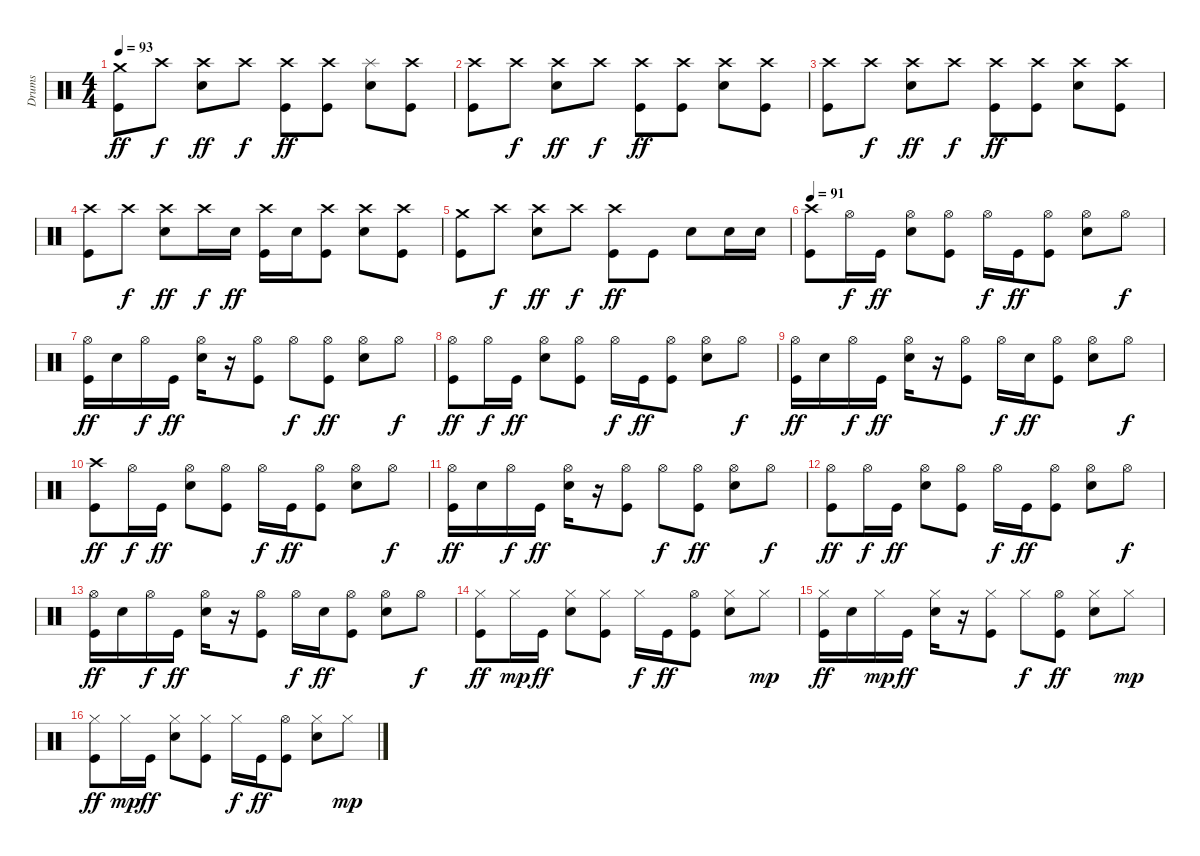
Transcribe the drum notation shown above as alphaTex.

\track ("Drums" "Drums") {instrument percussion}
\staff {score}
\articulation defaults
\ts (4 4)
\tempo 93
\clef neutral
\ks c
("Crash medium (hit)" "Kick (hit)").8{dy ff} "Crash high (hit)".8{dy f} ("Crash high (hit)" "Electric Snare (hit)").8{dy ff} "Crash high (hit)".8{dy f} ("Crash high (hit)" "Kick (hit)").8{dy ff} ("Crash high (hit)" "Kick (hit)").8 ("Splash (hit)" "Electric Snare (hit)").8 ("Crash high (hit)" "Kick (hit)").8 |
("Crash high (hit)" "Kick (hit)").8 "Crash high (hit)".8{dy f} ("Crash high (hit)" "Electric Snare (hit)").8{dy ff} "Crash high (hit)".8{dy f} ("Crash high (hit)" "Kick (hit)").8{dy ff} ("Crash high (hit)" "Kick (hit)").8 ("Crash high (hit)" "Electric Snare (hit)").8 ("Crash high (hit)" "Kick (hit)").8 |
("Crash high (hit)" "Kick (hit)").8 "Crash high (hit)".8{dy f} ("Crash high (hit)" "Electric Snare (hit)").8{dy ff} "Crash high (hit)".8{dy f} ("Crash high (hit)" "Kick (hit)").8{dy ff} ("Crash high (hit)" "Kick (hit)").8 ("Crash high (hit)" "Electric Snare (hit)").8 ("Crash high (hit)" "Kick (hit)").8 |
("Crash high (hit)" "Kick (hit)").8 "Crash high (hit)".8{dy f} ("Crash high (hit)" "Electric Snare (hit)").8{dy ff} "Crash high (hit)".16{dy f} "Electric Snare (hit)".16{dy ff} ("Crash high (hit)" "Kick (hit)").16 "Electric Snare (hit)".16 ("Crash high (hit)" "Kick (hit)").8 ("Crash high (hit)" "Electric Snare (hit)").8 ("Crash high (hit)" "Kick (hit)").8 |
("Crash medium (hit)" "Kick (hit)").8 "Crash high (hit)".8{dy f} ("Crash high (hit)" "Electric Snare (hit)").8{dy ff} "Crash high (hit)".8{dy f} ("Crash high (hit)" "Kick (hit)").8{dy ff} "Kick (hit)".8 "Electric Snare (hit)".8 "Electric Snare (hit)".16 "Electric Snare (hit)".16 |
\tempo 91
("Crash high (hit)" "Kick (hit)").8 "Hi-Hat (open)".16{dy f} "Kick (hit)".16{dy ff} ("Hi-Hat (open)" "Electric Snare (hit)").8 ("Hi-Hat (open)" "Kick (hit)").8 "Hi-Hat (open)".16{dy f} "Kick (hit)".16{dy ff} ("Hi-Hat (open)" "Kick (hit)").8 ("Hi-Hat (open)" "Electric Snare (hit)").8 "Hi-Hat (open)".8{dy f} |
("Hi-Hat (open)" "Kick (hit)").16{dy ff} "Electric Snare (hit)".16 "Hi-Hat (open)".16{dy f} "Kick (hit)".16{dy ff} ("Hi-Hat (open)" "Electric Snare (hit)").16 r.16 ("Hi-Hat (open)" "Kick (hit)").8 "Hi-Hat (open)".8{dy f} ("Hi-Hat (open)" "Kick (hit)").8{dy ff} ("Hi-Hat (open)" "Electric Snare (hit)").8 "Hi-Hat (open)".8{dy f} |
("Hi-Hat (open)" "Kick (hit)").8{dy ff} "Hi-Hat (open)".16{dy f} "Kick (hit)".16{dy ff} ("Hi-Hat (open)" "Electric Snare (hit)").8 ("Hi-Hat (open)" "Kick (hit)").8 "Hi-Hat (open)".16{dy f} "Kick (hit)".16{dy ff} ("Hi-Hat (open)" "Kick (hit)").8 ("Hi-Hat (open)" "Electric Snare (hit)").8 "Hi-Hat (open)".8{dy f} |
("Hi-Hat (open)" "Kick (hit)").16{dy ff} "Electric Snare (hit)".16 "Hi-Hat (open)".16{dy f} "Kick (hit)".16{dy ff} ("Hi-Hat (open)" "Electric Snare (hit)").16 r.16 ("Hi-Hat (open)" "Kick (hit)").8 "Hi-Hat (open)".16{dy f} "Electric Snare (hit)".16{dy ff} ("Hi-Hat (open)" "Kick (hit)").8 ("Hi-Hat (open)" "Electric Snare (hit)").8 "Hi-Hat (open)".8{dy f} |
("Crash high (hit)" "Kick (hit)").8{dy ff} "Hi-Hat (open)".16{dy f} "Kick (hit)".16{dy ff} ("Hi-Hat (open)" "Electric Snare (hit)").8 ("Hi-Hat (open)" "Kick (hit)").8 "Hi-Hat (open)".16{dy f} "Kick (hit)".16{dy ff} ("Hi-Hat (open)" "Kick (hit)").8 ("Hi-Hat (open)" "Electric Snare (hit)").8 "Hi-Hat (open)".8{dy f} |
("Hi-Hat (open)" "Kick (hit)").16{dy ff} "Electric Snare (hit)".16 "Hi-Hat (open)".16{dy f} "Kick (hit)".16{dy ff} ("Hi-Hat (open)" "Electric Snare (hit)").16 r.16 ("Hi-Hat (open)" "Kick (hit)").8 "Hi-Hat (open)".8{dy f} ("Hi-Hat (open)" "Kick (hit)").8{dy ff} ("Hi-Hat (open)" "Electric Snare (hit)").8 "Hi-Hat (open)".8{dy f} |
("Hi-Hat (open)" "Kick (hit)").8{dy ff} "Hi-Hat (open)".16{dy f} "Kick (hit)".16{dy ff} ("Hi-Hat (open)" "Electric Snare (hit)").8 ("Hi-Hat (open)" "Kick (hit)").8 "Hi-Hat (open)".16{dy f} "Kick (hit)".16{dy ff} ("Hi-Hat (open)" "Kick (hit)").8 ("Hi-Hat (open)" "Electric Snare (hit)").8 "Hi-Hat (open)".8{dy f} |
("Hi-Hat (open)" "Kick (hit)").16{dy ff} "Electric Snare (hit)".16 "Hi-Hat (open)".16{dy f} "Kick (hit)".16{dy ff} ("Hi-Hat (open)" "Electric Snare (hit)").16 r.16 ("Hi-Hat (open)" "Kick (hit)").8 "Hi-Hat (open)".16{dy f} "Electric Snare (hit)".16{dy ff} ("Hi-Hat (open)" "Kick (hit)").8 ("Hi-Hat (open)" "Electric Snare (hit)").8 "Hi-Hat (open)".8{dy f} |
("Hi-Hat (closed)" "Kick (hit)").8{dy ff} "Hi-Hat (closed)".16{dy mp} "Kick (hit)".16{dy ff} ("Hi-Hat (closed)" "Electric Snare (hit)").8 ("Hi-Hat (closed)" "Kick (hit)").8 "Hi-Hat (closed)".16{dy f} "Kick (hit)".16{dy ff} ("Hi-Hat (open)" "Kick (hit)").8 ("Hi-Hat (closed)" "Electric Snare (hit)").8 "Hi-Hat (closed)".8{dy mp} |
("Hi-Hat (closed)" "Kick (hit)").16{dy ff} "Electric Snare (hit)".16 "Hi-Hat (closed)".16{dy mp} "Kick (hit)".16{dy ff} ("Hi-Hat (closed)" "Electric Snare (hit)").16 r.16 ("Hi-Hat (closed)" "Kick (hit)").8 "Hi-Hat (closed)".8{dy f} ("Hi-Hat (open)" "Kick (hit)").8{dy ff} ("Hi-Hat (closed)" "Electric Snare (hit)").8 "Hi-Hat (closed)".8{dy mp} |
("Hi-Hat (closed)" "Kick (hit)").8{dy ff} "Hi-Hat (closed)".16{dy mp} "Kick (hit)".16{dy ff} ("Hi-Hat (closed)" "Electric Snare (hit)").8 ("Hi-Hat (closed)" "Kick (hit)").8 "Hi-Hat (closed)".16{dy f} "Kick (hit)".16{dy ff} ("Hi-Hat (open)" "Kick (hit)").8 ("Hi-Hat (closed)" "Electric Snare (hit)").8 "Hi-Hat (closed)".8{dy mp}
